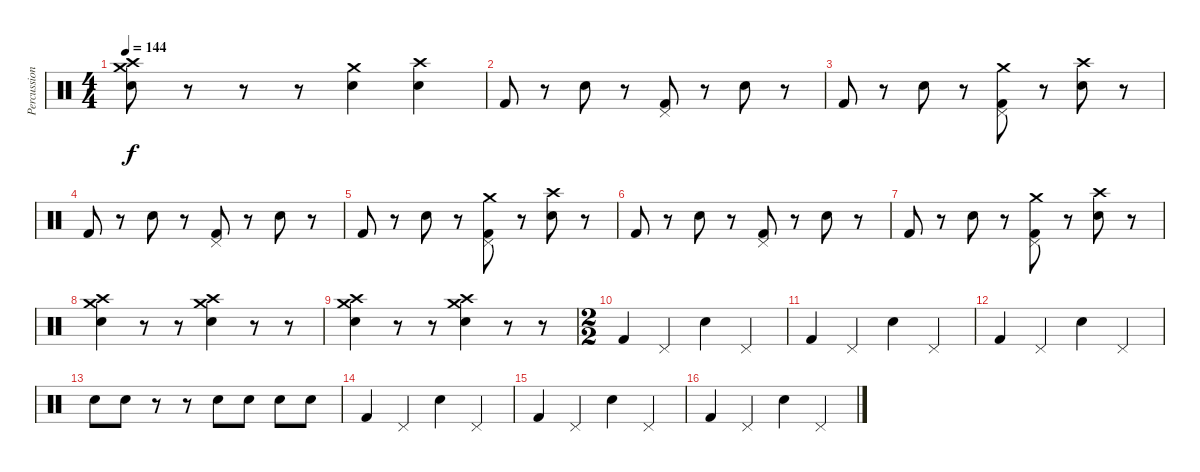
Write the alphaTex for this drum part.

\track ("Percussion" "Percussion") {instrument percussion}
\staff {score}
\articulation defaults
\ts (4 4)
\tempo 144
\clef neutral
\ks c
("Snare (hit) 2" "Crash high (hit)" "Crash medium (hit)").8{dy f} r.8 r.8 r.8 ("Snare (hit) 2" "Crash medium (hit)").4 ("Snare (hit) 2" "Crash high (hit)").4 |
"Kick (hit) 2".8 r.8 "Snare (hit) 2".8 r.8 ("Pedal Hi-Hat (hit)" "Kick (hit) 2").8 r.8 "Snare (hit) 2".8 r.8 |
"Kick (hit) 2".8 r.8 "Snare (hit) 2".8 r.8 ("Pedal Hi-Hat (hit)" "Kick (hit) 2" "Crash medium (hit)").8 r.8 ("Snare (hit) 2" "Crash high (hit)").8 r.8 |
"Kick (hit) 2".8 r.8 "Snare (hit) 2".8 r.8 ("Pedal Hi-Hat (hit)" "Kick (hit) 2").8 r.8 "Snare (hit) 2".8 r.8 |
"Kick (hit) 2".8 r.8 "Snare (hit) 2".8 r.8 ("Pedal Hi-Hat (hit)" "Kick (hit) 2" "Crash medium (hit)").8 r.8 ("Snare (hit) 2" "Crash high (hit)").8 r.8 |
"Kick (hit) 2".8 r.8 "Snare (hit) 2".8 r.8 ("Pedal Hi-Hat (hit)" "Kick (hit) 2").8 r.8 "Snare (hit) 2".8 r.8 |
"Kick (hit) 2".8 r.8 "Snare (hit) 2".8 r.8 ("Pedal Hi-Hat (hit)" "Kick (hit) 2" "Crash medium (hit)").8 r.8 ("Snare (hit) 2" "Crash high (hit)").8 r.8 |
("Snare (hit) 2" "Crash high (hit)" "Crash medium (hit)").4 r.8 r.8 ("Snare (hit) 2" "Crash medium (hit)" "Crash high (hit)").4 r.8 r.8 |
("Snare (hit) 2" "Crash high (hit)" "Crash medium (hit)").4 r.8 r.8 ("Snare (hit) 2" "Crash medium (hit)" "Crash high (hit)").4 r.8 r.8 |
\ts (2 2)
"Kick (hit) 2".4 "Pedal Hi-Hat (hit)".4 "Snare (hit) 2".4 "Pedal Hi-Hat (hit)".4 |
"Kick (hit) 2".4 "Pedal Hi-Hat (hit)".4 "Snare (hit) 2".4 "Pedal Hi-Hat (hit)".4 |
"Kick (hit) 2".4 "Pedal Hi-Hat (hit)".4 "Snare (hit) 2".4 "Pedal Hi-Hat (hit)".4 |
"Snare (hit) 2".8 "Snare (hit) 2".8 r.8 r.8 "Electric Snare (hit)".8 "Electric Snare (hit)".8 "Snare (hit) 2".8 "Snare (hit) 2".8 |
"Kick (hit) 2".4 "Pedal Hi-Hat (hit)".4 "Snare (hit) 2".4 "Pedal Hi-Hat (hit)".4 |
"Kick (hit) 2".4 "Pedal Hi-Hat (hit)".4 "Snare (hit) 2".4 "Pedal Hi-Hat (hit)".4 |
"Kick (hit) 2".4 "Pedal Hi-Hat (hit)".4 "Snare (hit) 2".4 "Pedal Hi-Hat (hit)".4
